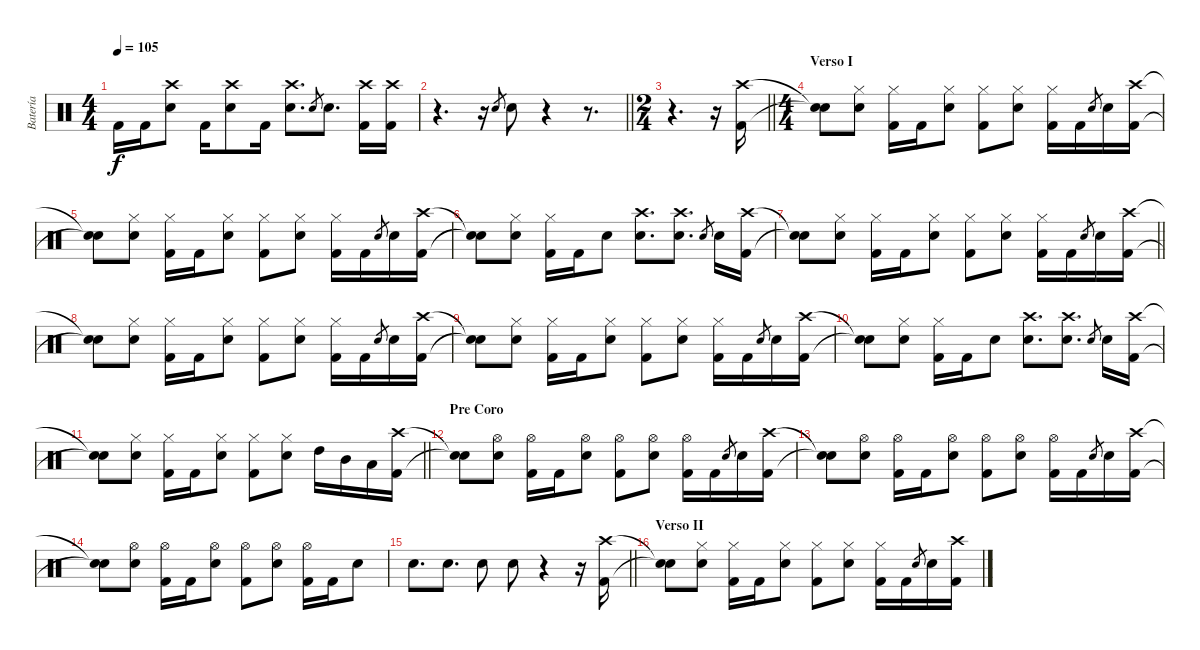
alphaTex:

\track ("Batería" "Batería") {instrument percussion}
\staff {score}
\articulation defaults
\ts (4 4)
\tempo 105
\clef neutral
\ks c "Kick (hit) 2".16{dy f} "Kick (hit) 2".16
("Snare (hit) 2" "Crash high (hit)").8 "Kick (hit) 2".16 ("Snare (hit) 2" "Crash high (hit)").8 "Kick (hit) 2".16 ("Snare (hit) 2" "Crash high (hit)").8{d} "Snare (hit) 2".8{gr} "Snare (hit) 2".8{d} ("Kick (hit) 2" "Crash high (hit)").16 ("Kick (hit) 2" "Crash high (hit)").16 |
\barLineRight lightlight
r.4{d} r.16 "Snare (hit) 2".8{gr} "Snare (hit) 2".8 r.4 r.8{d} |
\ts (2 4)
\barLineRight lightlight
r.4{d} r.16 ("Kick (hit) 2" "Crash high (hit)").16 |
\ts (4 4)
\section ("" "Verso I")
("Snare (hit)"{t} "Snare (hit)"{t}).8 ("Hi-Hat (closed)" "Snare (hit) 2").8 ("Hi-Hat (closed)" "Kick (hit) 2").16 "Kick (hit) 2".16 ("Hi-Hat (closed)" "Snare (hit) 2").8 ("Hi-Hat (closed)" "Kick (hit) 2").8 ("Hi-Hat (closed)" "Snare (hit) 2").8 ("Hi-Hat (closed)" "Kick (hit) 2").16 "Kick (hit) 2".16 "Snare (hit) 2".8{gr} "Snare (hit) 2".16 ("Kick (hit) 2" "Crash high (hit)").16 |
("Snare (hit)"{t} "Snare (hit)"{t}).8 ("Hi-Hat (closed)" "Snare (hit) 2").8 ("Hi-Hat (closed)" "Kick (hit) 2").16 "Kick (hit) 2".16 ("Hi-Hat (closed)" "Snare (hit) 2").8 ("Hi-Hat (closed)" "Kick (hit) 2").8 ("Hi-Hat (closed)" "Snare (hit) 2").8 ("Hi-Hat (closed)" "Kick (hit) 2").16 "Kick (hit) 2".16 "Snare (hit) 2".8{gr} "Snare (hit) 2".16 ("Kick (hit) 2" "Crash high (hit)").16 |
("Snare (hit)"{t} "Snare (hit)"{t}).8 ("Hi-Hat (closed)" "Snare (hit) 2").8 ("Hi-Hat (closed)" "Kick (hit) 2").16 "Kick (hit) 2".16 "Snare (hit) 2".8 ("Crash high (hit)" "Snare (hit) 2").8{d} ("Crash high (hit)" "Snare (hit) 2").8{d} "Snare (hit) 2".8{gr} "Snare (hit) 2".16 ("Kick (hit) 2" "Crash high (hit)").16 |
\barLineRight lightlight
("Snare (hit)"{t} "Snare (hit)"{t}).8 ("Hi-Hat (closed)" "Snare (hit) 2").8 ("Hi-Hat (closed)" "Kick (hit) 2").16 "Kick (hit) 2".16 ("Hi-Hat (closed)" "Snare (hit) 2").8 ("Hi-Hat (closed)" "Kick (hit) 2").8 ("Hi-Hat (closed)" "Snare (hit) 2").8 ("Hi-Hat (closed)" "Kick (hit) 2").16 "Kick (hit) 2".16 "Snare (hit) 2".8{gr} "Snare (hit) 2".16 ("Kick (hit) 2" "Crash high (hit)").16 |
("Snare (hit)"{t} "Snare (hit)"{t}).8 ("Hi-Hat (closed)" "Snare (hit) 2").8 ("Hi-Hat (closed)" "Kick (hit) 2").16 "Kick (hit) 2".16 ("Hi-Hat (closed)" "Snare (hit) 2").8 ("Hi-Hat (closed)" "Kick (hit) 2").8 ("Hi-Hat (closed)" "Snare (hit) 2").8 ("Hi-Hat (closed)" "Kick (hit) 2").16 "Kick (hit) 2".16 "Snare (hit) 2".8{gr} "Snare (hit) 2".16 ("Kick (hit) 2" "Crash high (hit)").16 |
("Snare (hit)"{t} "Snare (hit)"{t}).8 ("Hi-Hat (closed)" "Snare (hit) 2").8 ("Hi-Hat (closed)" "Kick (hit) 2").16 "Kick (hit) 2".16 ("Hi-Hat (closed)" "Snare (hit) 2").8 ("Hi-Hat (closed)" "Kick (hit) 2").8 ("Hi-Hat (closed)" "Snare (hit) 2").8 ("Hi-Hat (closed)" "Kick (hit) 2").16 "Kick (hit) 2".16 "Snare (hit) 2".8{gr} "Snare (hit) 2".16 ("Kick (hit) 2" "Crash high (hit)").16 |
("Snare (hit)"{t} "Snare (hit)"{t}).8 ("Hi-Hat (closed)" "Snare (hit) 2").8 ("Hi-Hat (closed)" "Kick (hit) 2").16 "Kick (hit) 2".16 "Snare (hit) 2".8 ("Crash high (hit)" "Snare (hit) 2").8{d} ("Crash high (hit)" "Snare (hit) 2").8{d} "Snare (hit) 2".8{gr} "Snare (hit) 2".16 ("Kick (hit) 2" "Crash high (hit)").16 |
\barLineRight lightlight
("Snare (hit)"{t} "Snare (hit)"{t}).8 ("Hi-Hat (closed)" "Snare (hit) 2").8 ("Hi-Hat (closed)" "Kick (hit) 2").16 "Kick (hit) 2".16 ("Hi-Hat (closed)" "Snare (hit) 2").8 ("Hi-Hat (closed)" "Kick (hit) 2").8 ("Hi-Hat (closed)" "Snare (hit) 2").8 "High Tom (hit)".16 "Mid Tom (hit)".16 "Low Tom (hit)".16 ("Kick (hit) 2" "Crash high (hit)").16 |
\section ("" "Pre Coro")
("Snare (hit)"{t} "Snare (hit)"{t}).8 ("Hi-Hat (open)" "Snare (hit) 2").8 ("Hi-Hat (open)" "Kick (hit) 2").16 "Kick (hit) 2".16 ("Hi-Hat (open)" "Snare (hit) 2").8 ("Hi-Hat (open)" "Kick (hit) 2").8 ("Hi-Hat (open)" "Snare (hit) 2").8 ("Hi-Hat (open)" "Kick (hit) 2").16 "Kick (hit) 2".16 "Snare (hit) 2".8{gr} "Snare (hit) 2".16 ("Kick (hit) 2" "Crash high (hit)").16 |
("Snare (hit)"{t} "Snare (hit)"{t}).8 ("Hi-Hat (open)" "Snare (hit) 2").8 ("Hi-Hat (open)" "Kick (hit) 2").16 "Kick (hit) 2".16 ("Hi-Hat (open)" "Snare (hit) 2").8 ("Hi-Hat (open)" "Kick (hit) 2").8 ("Hi-Hat (open)" "Snare (hit) 2").8 ("Hi-Hat (open)" "Kick (hit) 2").16 "Kick (hit) 2".16 "Snare (hit) 2".8{gr} "Snare (hit) 2".16 ("Kick (hit) 2" "Crash high (hit)").16 |
("Snare (hit)"{t} "Snare (hit)"{t}).8 ("Hi-Hat (open)" "Snare (hit) 2").8 ("Hi-Hat (open)" "Kick (hit) 2").16 "Kick (hit) 2".16 ("Hi-Hat (open)" "Snare (hit) 2").8 ("Hi-Hat (open)" "Kick (hit) 2").8 ("Hi-Hat (open)" "Snare (hit) 2").8 ("Hi-Hat (open)" "Kick (hit) 2").16 "Kick (hit) 2".16 "Snare (hit) 2".8 |
\barLineRight lightlight "Snare (hit) 2".8{d} "Snare (hit) 2".8{d} "Snare (hit) 2".8 "Snare (hit) 2".8
r.4 r.16 ("Kick (hit) 2" "Crash high (hit)").16 |
\section ("" "Verso II")
("Snare (hit)"{t} "Snare (hit)"{t}).8 ("Hi-Hat (closed)" "Snare (hit) 2").8 ("Hi-Hat (closed)" "Kick (hit) 2").16 "Kick (hit) 2".16 ("Hi-Hat (closed)" "Snare (hit) 2").8 ("Hi-Hat (closed)" "Kick (hit) 2").8 ("Hi-Hat (closed)" "Snare (hit) 2").8 ("Hi-Hat (closed)" "Kick (hit) 2").16 "Kick (hit) 2".16 "Snare (hit) 2".8{gr} "Snare (hit) 2".16 ("Kick (hit) 2" "Crash high (hit)").16
